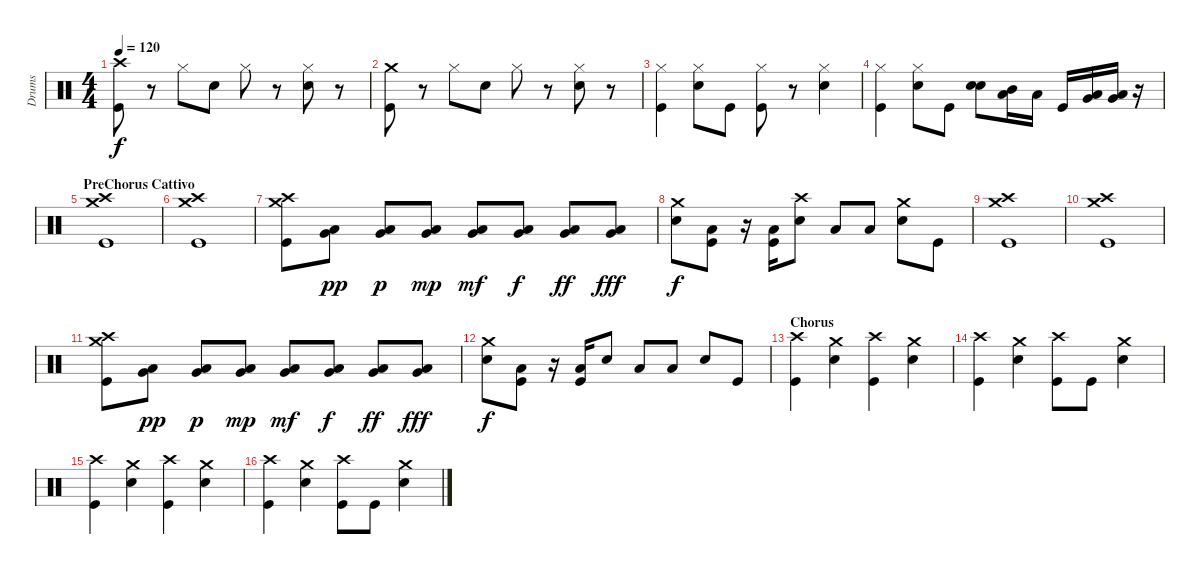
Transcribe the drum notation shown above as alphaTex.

\track ("Drums" "Drums") {instrument percussion}
\staff {score}
\articulation defaults
\ts (4 4)
\tempo 120
\clef neutral
\ks c
("Crash high (hit)" "Kick (hit)").8{dy f} r.8 "Hi-Hat (closed)".8 "Electric Snare (hit)".8 "Hi-Hat (closed)".8 r.8 ("Hi-Hat (closed)" "Electric Snare (hit)").8 r.8 |
("Crash medium (hit)" "Kick (hit)").8 r.8 "Hi-Hat (closed)".8 "Electric Snare (hit)".8 "Hi-Hat (closed)".8 r.8 ("Hi-Hat (closed)" "Electric Snare (hit)").8 r.8 |
("Hi-Hat (closed)" "Kick (hit)").4 ("Hi-Hat (closed)" "Electric Snare (hit)").8 "Kick (hit)".8 ("Hi-Hat (closed)" "Kick (hit)").8 r.8 ("Hi-Hat (closed)" "Electric Snare (hit)").4 |
("Hi-Hat (closed)" "Kick (hit)").4 ("Hi-Hat (closed)" "Electric Snare (hit)").8 "Kick (hit)".8 ("Electric Snare (hit)" "Electric Snare (hit)").8{bu 120} ("Mid Tom (hit)" "Low Tom (hit)").16 "Low Tom (hit)".16 "Kick (hit)".16 ("Low Tom (hit)" "Very Low Tom (hit)").16 ("Very Low Tom (hit)" "Low Floor Tom (hit)").16 r.16 |
\section ("" "PreChorus Cattivo")
("Crash medium (hit)" "Crash high (hit)" "Kick (hit)").1 |
("Crash high (hit)" "Crash medium (hit)" "Kick (hit)").1 |
("Crash medium (hit)" "Crash high (hit)" "Kick (hit)").8 ("Very Low Tom (hit)" "Low Tom (hit)").8{dy pp} ("Very Low Tom (hit)" "Low Tom (hit)").8{dy p} ("Very Low Tom (hit)" "Low Tom (hit)").8{dy mp} ("Very Low Tom (hit)" "Low Tom (hit)").8{dy mf} ("Very Low Tom (hit)" "Low Tom (hit)").8{dy f} ("Very Low Tom (hit)" "Low Tom (hit)").8{dy ff} ("Very Low Tom (hit)" "Low Tom (hit)").8{dy fff} |
("Crash medium (hit)" "Electric Snare (hit)").8{dy f} ("Low Tom (hit)" "Kick (hit)").8 r.16 ("Low Tom (hit)" "Kick (hit)").16 ("Crash high (hit)" "Electric Snare (hit)").8 "Low Tom (hit)".8 "Low Tom (hit)".8 ("Crash medium (hit)" "Electric Snare (hit)").8 "Kick (hit)".8 |
("Crash medium (hit)" "Crash high (hit)" "Kick (hit)").1 |
("Crash high (hit)" "Crash medium (hit)" "Kick (hit)").1 |
("Crash medium (hit)" "Crash high (hit)" "Kick (hit)").8 ("Very Low Tom (hit)" "Low Tom (hit)").8{dy pp} ("Very Low Tom (hit)" "Low Tom (hit)").8{dy p} ("Very Low Tom (hit)" "Low Tom (hit)").8{dy mp} ("Very Low Tom (hit)" "Low Tom (hit)").8{dy mf} ("Very Low Tom (hit)" "Low Tom (hit)").8{dy f} ("Very Low Tom (hit)" "Low Tom (hit)").8{dy ff} ("Very Low Tom (hit)" "Low Tom (hit)").8{dy fff} |
("Crash medium (hit)" "Electric Snare (hit)").8{dy f} ("Low Tom (hit)" "Kick (hit)").8 r.16 ("Low Tom (hit)" "Kick (hit)").16 "Electric Snare (hit)".8 "Low Tom (hit)".8 "Low Tom (hit)".8 "Electric Snare (hit)".8 "Kick (hit)".8 |
\section ("" "Chorus")
("Crash high (hit)" "Kick (hit)").4 ("Crash medium (hit)" "Electric Snare (hit)").4 ("Crash high (hit)" "Kick (hit)").4 ("Crash medium (hit)" "Electric Snare (hit)").4 |
("Crash high (hit)" "Kick (hit)").4 ("Crash medium (hit)" "Electric Snare (hit)").4 ("Crash high (hit)" "Kick (hit)").8 "Kick (hit)".8 ("Crash medium (hit)" "Electric Snare (hit)").4 |
("Crash high (hit)" "Kick (hit)").4 ("Crash medium (hit)" "Electric Snare (hit)").4 ("Crash high (hit)" "Kick (hit)").4 ("Crash medium (hit)" "Electric Snare (hit)").4 |
("Crash high (hit)" "Kick (hit)").4 ("Crash medium (hit)" "Electric Snare (hit)").4 ("Crash high (hit)" "Kick (hit)").8 "Kick (hit)".8 ("Crash medium (hit)" "Electric Snare (hit)").4
